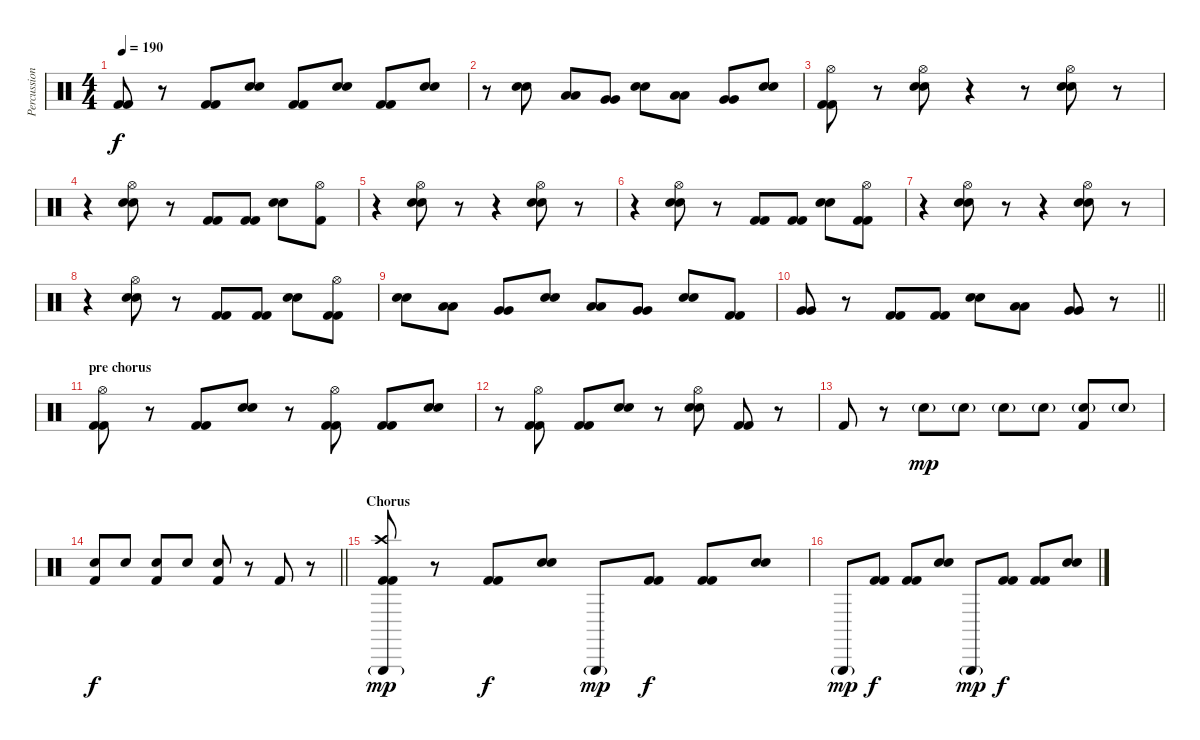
\track ("Percussions" "Percussion") {instrument percussion}
\staff {score}
\articulation defaults
\ts (4 4)
\tempo 190
\clef neutral
\ks c
("Kick (hit) 2" "Kick (hit) 2").8{dy f} r.8 ("Kick (hit) 2" "Kick (hit) 2").8 ("Snare (hit) 2" "Snare (hit) 2").8 ("Kick (hit) 2" "Kick (hit) 2").8 ("Snare (hit) 2" "Snare (hit) 2").8 ("Kick (hit) 2" "Kick (hit) 2").8 ("Snare (hit) 2" "Snare (hit) 2").8 |
r.8 ("Snare (hit) 2" "Snare (hit) 2").8 ("Low Tom (hit)" "Low Tom (hit)").8 ("Very Low Tom (hit)" "Very Low Tom (hit)").8 ("Snare (hit) 2" "Snare (hit) 2").8 ("Low Tom (hit)" "Low Tom (hit)").8 ("Very Low Tom (hit)" "Very Low Tom (hit)").8 ("Snare (hit) 2" "Snare (hit) 2").8 |
("Kick (hit) 2" "Kick (hit) 2" "Hi-Hat (open)").8 r.8 ("Snare (hit) 2" "Snare (hit) 2" "Hi-Hat (open)").8 r.4 r.8 ("Snare (hit) 2" "Snare (hit) 2" "Hi-Hat (open)").8 r.8 |
r.4 ("Snare (hit) 2" "Snare (hit) 2" "Hi-Hat (open)").8 r.8 ("Kick (hit) 2" "Kick (hit) 2").8 ("Kick (hit) 2" "Kick (hit) 2").8 ("Snare (hit) 2" "Snare (hit) 2").8 ("Kick (hit) 2" "Hi-Hat (open)").8 |
r.4 ("Snare (hit) 2" "Snare (hit) 2" "Hi-Hat (open)").8 r.8 r.4 ("Snare (hit) 2" "Snare (hit) 2" "Hi-Hat (open)").8 r.8 |
r.4 ("Snare (hit) 2" "Snare (hit) 2" "Hi-Hat (open)").8 r.8 ("Kick (hit) 2" "Kick (hit) 2").8 ("Kick (hit) 2" "Kick (hit) 2").8 ("Snare (hit) 2" "Snare (hit) 2").8 ("Kick (hit) 2" "Kick (hit) 2" "Hi-Hat (open)").8 |
r.4 ("Snare (hit) 2" "Snare (hit) 2" "Hi-Hat (open)").8 r.8 r.4 ("Snare (hit) 2" "Snare (hit) 2" "Hi-Hat (open)").8 r.8 |
r.4 ("Snare (hit) 2" "Snare (hit) 2" "Hi-Hat (open)").8 r.8 ("Kick (hit) 2" "Kick (hit) 2").8 ("Kick (hit) 2" "Kick (hit) 2").8 ("Snare (hit) 2" "Snare (hit) 2").8 ("Kick (hit) 2" "Kick (hit) 2" "Hi-Hat (open)").8 |
("Snare (hit) 2" "Snare (hit) 2").8 ("Low Tom (hit)" "Low Tom (hit)").8 ("Very Low Tom (hit)" "Very Low Tom (hit)").8 ("Snare (hit) 2" "Snare (hit) 2").8 ("Low Tom (hit)" "Low Tom (hit)").8 ("Very Low Tom (hit)" "Very Low Tom (hit)").8 ("Snare (hit) 2" "Snare (hit) 2").8 ("Kick (hit) 2" "Kick (hit) 2").8 |
\barLineRight lightlight
("Very Low Tom (hit)" "Very Low Tom (hit)").8 r.8 ("Kick (hit) 2" "Kick (hit) 2").8 ("Kick (hit) 2" "Kick (hit) 2").8 ("Snare (hit) 2" "Snare (hit) 2").8 ("Low Tom (hit)" "Low Tom (hit)").8 ("Very Low Tom (hit)" "Very Low Tom (hit)").8 r.8 |
\section ("" "pre chorus")
("Kick (hit) 2" "Kick (hit) 2" "Hi-Hat (open)").8 r.8 ("Kick (hit) 2" "Kick (hit) 2").8 ("Snare (hit) 2" "Snare (hit) 2").8 r.8 ("Kick (hit) 2" "Kick (hit) 2" "Hi-Hat (open)").8 ("Kick (hit) 2" "Kick (hit) 2").8 ("Snare (hit) 2" "Snare (hit) 2").8 |
r.8 ("Kick (hit) 2" "Kick (hit) 2" "Hi-Hat (open)").8 ("Kick (hit) 2" "Kick (hit) 2").8 ("Snare (hit) 2" "Snare (hit) 2").8 r.8 ("Electric Snare (hit)" "Electric Snare (hit)" "Hi-Hat (open)").8 ("Kick (hit) 2" "Kick (hit) 2").8 r.8 |
"Kick (hit) 2".8 r.8 "Electric Snare (hit)"{g}.8{dy mp volume 6} "Electric Snare (hit)"{g}.8{volume 8} "Electric Snare (hit)"{g}.8{volume 10} "Electric Snare (hit)"{g}.8{volume 12} ("Electric Snare (hit)"{g} "Kick (hit) 2").8{volume 14} "Electric Snare (hit)"{g}.8{volume 16} |
\barLineRight lightlight
("Electric Snare (hit)" "Kick (hit) 2").8{dy f} "Electric Snare (hit)".8 ("Kick (hit) 2" "Electric Snare (hit)").8 "Electric Snare (hit)".8 ("Kick (hit) 2" "Electric Snare (hit)").8 r.8 "Kick (hit) 2".8 r.8 |
\section ("" "Chorus")
("Kick (hit) 2" "Kick (hit) 2" "Crash high (hit)" "Triangle (hit)"{g}).8{dy mp} r.8 ("Kick (hit) 2" "Kick (hit) 2").8{dy f} ("Snare (hit) 2" "Snare (hit) 2").8 "Triangle (hit)"{g}.8{dy mp} ("Kick (hit) 2" "Kick (hit) 2").8{dy f} ("Kick (hit) 2" "Kick (hit) 2").8 ("Snare (hit) 2" "Snare (hit) 2").8 |
"Triangle (hit)"{g}.8{dy mp} ("Kick (hit) 2" "Kick (hit) 2").8{dy f} ("Kick (hit) 2" "Kick (hit) 2").8 ("Snare (hit) 2" "Snare (hit) 2").8 "Triangle (hit)"{g}.8{dy mp} ("Kick (hit) 2" "Kick (hit) 2").8{dy f} ("Kick (hit) 2" "Kick (hit) 2").8 ("Snare (hit) 2" "Snare (hit) 2").8
